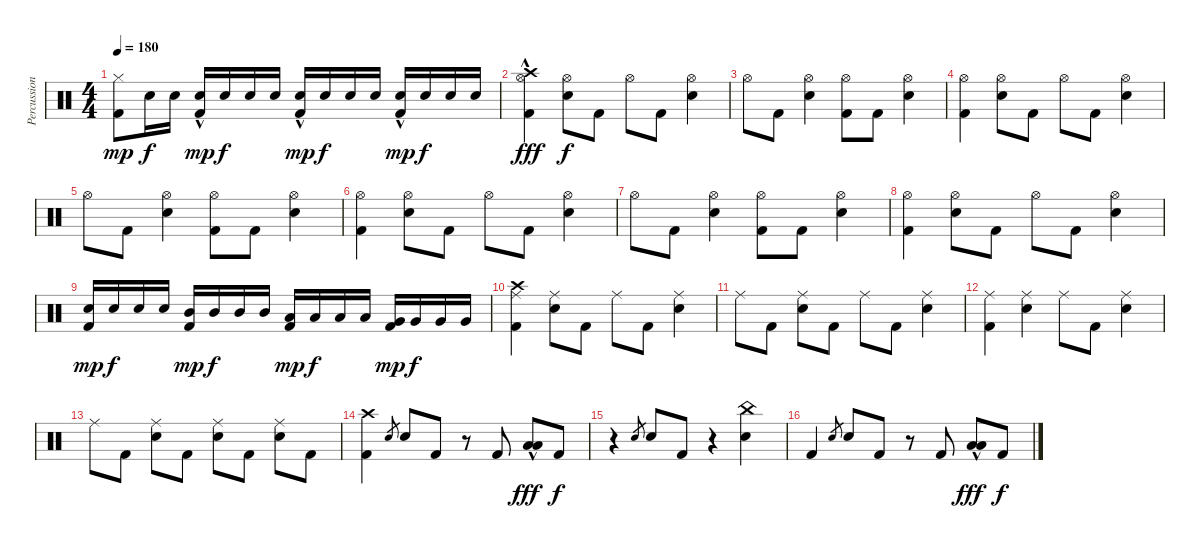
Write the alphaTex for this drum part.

\track ("Percussion" "Percussion") {instrument percussion}
\staff {score}
\articulation defaults
\ts (4 4)
\tempo 180
\clef neutral
\ks c
("Hi-Hat (closed)" "Kick (hit) 2").8{dy mp} "Electric Snare (hit)".16{dy f} "Electric Snare (hit)".16 ("Electric Snare (hit)"{hac} "Kick (hit) 2").16{dy mp} "Electric Snare (hit)".16{dy f} "Electric Snare (hit)".16 "Electric Snare (hit)".16 ("Electric Snare (hit)"{hac} "Kick (hit) 2").16{dy mp} "Electric Snare (hit)".16{dy f} "Electric Snare (hit)".16 "Electric Snare (hit)".16 ("Electric Snare (hit)"{hac} "Kick (hit) 2").16{dy mp} "Electric Snare (hit)".16{dy f} "Electric Snare (hit)".16 "Electric Snare (hit)".16 |
("Hi-Hat (open)" "Crash high (hit)"{hac} "Kick (hit) 2").4{dy fff} ("Hi-Hat (open)" "Electric Snare (hit)").8{dy f} "Kick (hit) 2".8 "Hi-Hat (open)".8 "Kick (hit) 2".8 ("Hi-Hat (open)" "Electric Snare (hit)").4 |
"Hi-Hat (open)".8 "Kick (hit) 2".8 ("Hi-Hat (open)" "Electric Snare (hit)").4 ("Hi-Hat (open)" "Kick (hit) 2").8 "Kick (hit) 2".8 ("Hi-Hat (open)" "Electric Snare (hit)").4 |
("Hi-Hat (open)" "Kick (hit) 2").4 ("Hi-Hat (open)" "Electric Snare (hit)").8 "Kick (hit) 2".8 "Hi-Hat (open)".8 "Kick (hit) 2".8 ("Hi-Hat (open)" "Electric Snare (hit)").4 |
"Hi-Hat (open)".8 "Kick (hit) 2".8 ("Hi-Hat (open)" "Electric Snare (hit)").4 ("Hi-Hat (open)" "Kick (hit) 2").8 "Kick (hit) 2".8 ("Hi-Hat (open)" "Electric Snare (hit)").4 |
("Hi-Hat (open)" "Kick (hit) 2").4 ("Hi-Hat (open)" "Electric Snare (hit)").8 "Kick (hit) 2".8 "Hi-Hat (open)".8 "Kick (hit) 2".8 ("Hi-Hat (open)" "Electric Snare (hit)").4 |
"Hi-Hat (open)".8 "Kick (hit) 2".8 ("Hi-Hat (open)" "Electric Snare (hit)").4 ("Hi-Hat (open)" "Kick (hit) 2").8 "Kick (hit) 2".8 ("Hi-Hat (open)" "Electric Snare (hit)").4 |
("Hi-Hat (open)" "Kick (hit) 2").4 ("Hi-Hat (open)" "Electric Snare (hit)").8 "Kick (hit) 2".8 "Hi-Hat (open)".8 "Kick (hit) 2".8 ("Hi-Hat (open)" "Electric Snare (hit)").4 |
("Electric Snare (hit)" "Kick (hit) 2").16{dy mp} "Electric Snare (hit)".16{dy f} "Electric Snare (hit)".16 "Electric Snare (hit)".16 ("Mid Tom (hit)" "Kick (hit) 2").16{dy mp} "Mid Tom (hit)".16{dy f} "Mid Tom (hit)".16 "Mid Tom (hit)".16 ("Low Tom (hit)" "Kick (hit) 2").16{dy mp} "Low Tom (hit)".16{dy f} "Low Tom (hit)".16 "Low Tom (hit)".16 ("Very Low Tom (hit)" "Kick (hit) 2").16{dy mp} "Very Low Tom (hit)".16{dy f} "Very Low Tom (hit)".16 "Very Low Tom (hit)".16 |
("Ride (middle)" "Crash high (hit)" "Kick (hit) 2").4 ("Ride (middle)" "Electric Snare (hit)").8 "Kick (hit) 2".8 "Ride (middle)".8 "Kick (hit) 2".8 ("Ride (middle)" "Electric Snare (hit)").4 |
"Ride (middle)".8 "Kick (hit) 2".8 ("Ride (middle)" "Electric Snare (hit)").8 "Kick (hit) 2".8 "Ride (middle)".8 "Kick (hit) 2".8 ("Ride (middle)" "Electric Snare (hit)").4 |
("Ride (middle)" "Kick (hit) 2").4 ("Ride (middle)" "Electric Snare (hit)").4 "Ride (middle)".8 "Kick (hit) 2".8 ("Ride (middle)" "Electric Snare (hit)").4 |
"Ride (middle)".8 "Kick (hit) 2".8 ("Ride (middle)" "Electric Snare (hit)").8 "Kick (hit) 2".8 ("Ride (middle)" "Electric Snare (hit)").8 "Kick (hit) 2".8 ("Ride (middle)" "Electric Snare (hit)").8 "Kick (hit) 2".8 |
("Crash high (hit)" "Kick (hit) 2").4 "Electric Snare (hit)".8{gr} "Electric Snare (hit)".8 "Kick (hit) 2".8 r.8 "Kick (hit) 2".8 ("Low Tom (hit)"{hac} "Low Floor Tom (hit)"{hac}).8{dy fff} "Kick (hit) 2".8{dy f} |
r.4 "Electric Snare (hit)".8{gr} "Electric Snare (hit)".8 "Kick (hit) 2".8 r.4 ("China (hit)" "Electric Snare (hit)").4 |
"Kick (hit) 2".4 "Electric Snare (hit)".8{gr} "Electric Snare (hit)".8 "Kick (hit) 2".8 r.8 "Kick (hit) 2".8 ("Low Tom (hit)"{hac} "Low Floor Tom (hit)"{hac}).8{dy fff} "Kick (hit) 2".8{dy f}
